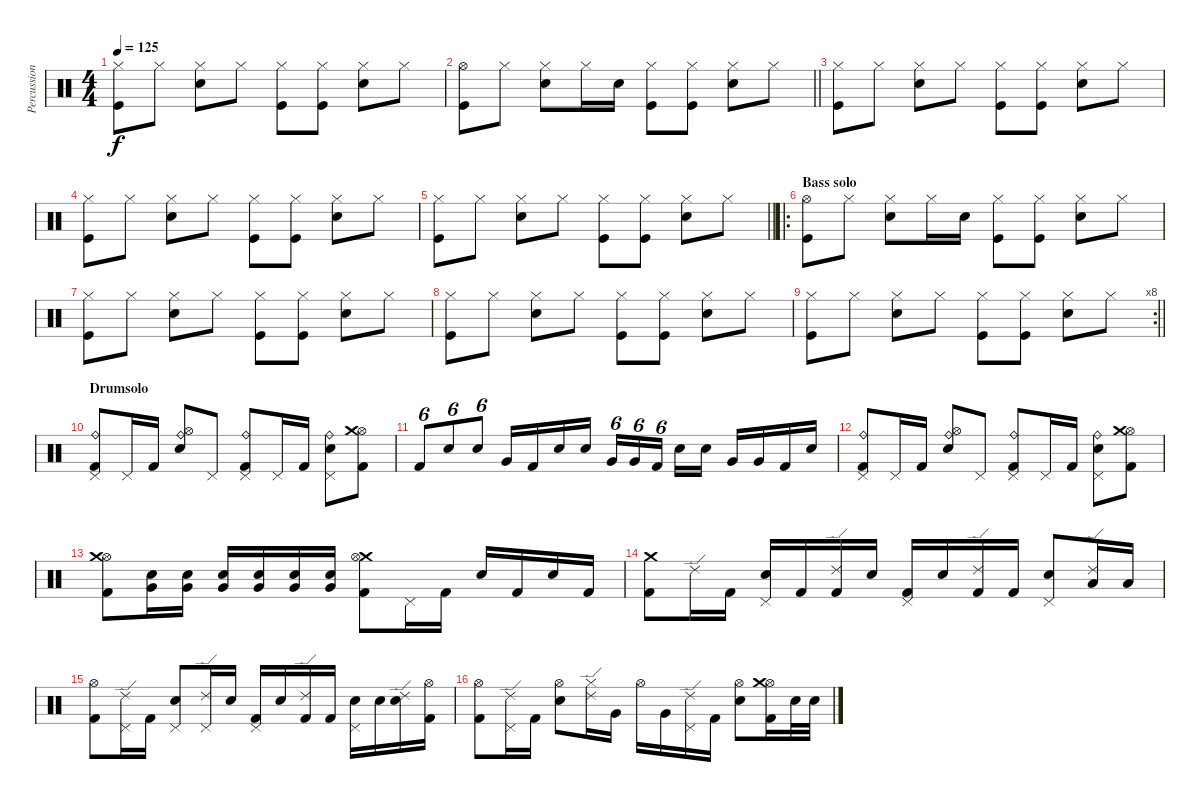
\track ("Percussion" "Percussion") {instrument percussion}
\staff {score}
\articulation defaults
\ts (4 4)
\tempo 125
\clef neutral
\ks c
("Hi-Hat (closed)" "Kick (hit)").8{dy f} "Hi-Hat (closed)".8 ("Electric Snare (hit)" "Hi-Hat (closed)").8 "Hi-Hat (closed)".8 ("Hi-Hat (closed)" "Kick (hit)").8 ("Hi-Hat (closed)" "Kick (hit)").8 ("Electric Snare (hit)" "Hi-Hat (closed)").8 "Hi-Hat (closed)".8 |
\barLineRight lightlight
("Hi-Hat (open)" "Kick (hit)").8 "Hi-Hat (closed)".8 ("Electric Snare (hit)" "Hi-Hat (closed)").8 "Hi-Hat (closed)".16 "Electric Snare (hit)".16 ("Hi-Hat (closed)" "Kick (hit)").8 ("Hi-Hat (closed)" "Kick (hit)").8 ("Electric Snare (hit)" "Hi-Hat (closed)").8 "Hi-Hat (closed)".8 |
("Hi-Hat (closed)" "Kick (hit)").8 "Hi-Hat (closed)".8 ("Electric Snare (hit)" "Hi-Hat (closed)").8 "Hi-Hat (closed)".8 ("Hi-Hat (closed)" "Kick (hit)").8 ("Hi-Hat (closed)" "Kick (hit)").8 ("Electric Snare (hit)" "Hi-Hat (closed)").8 "Hi-Hat (closed)".8 |
("Hi-Hat (closed)" "Kick (hit)").8 "Hi-Hat (closed)".8 ("Electric Snare (hit)" "Hi-Hat (closed)").8 "Hi-Hat (closed)".8 ("Hi-Hat (closed)" "Kick (hit)").8 ("Hi-Hat (closed)" "Kick (hit)").8 ("Electric Snare (hit)" "Hi-Hat (closed)").8 "Hi-Hat (closed)".8 |
\barLineRight lightlight
("Hi-Hat (closed)" "Kick (hit)").8 "Hi-Hat (closed)".8 ("Electric Snare (hit)" "Hi-Hat (closed)").8 "Hi-Hat (closed)".8 ("Hi-Hat (closed)" "Kick (hit)").8 ("Hi-Hat (closed)" "Kick (hit)").8 ("Electric Snare (hit)" "Hi-Hat (closed)").8 "Hi-Hat (closed)".8 |
\ro
\section ("" "Bass solo")
("Hi-Hat (open)" "Kick (hit)").8 "Hi-Hat (closed)".8 ("Electric Snare (hit)" "Hi-Hat (closed)").8 "Hi-Hat (closed)".16 "Electric Snare (hit)".16 ("Hi-Hat (closed)" "Kick (hit)").8 ("Hi-Hat (closed)" "Kick (hit)").8 ("Electric Snare (hit)" "Hi-Hat (closed)").8 "Hi-Hat (closed)".8 |
("Hi-Hat (closed)" "Kick (hit)").8 "Hi-Hat (closed)".8 ("Electric Snare (hit)" "Hi-Hat (closed)").8 "Hi-Hat (closed)".8 ("Hi-Hat (closed)" "Kick (hit)").8 ("Hi-Hat (closed)" "Kick (hit)").8 ("Electric Snare (hit)" "Hi-Hat (closed)").8 "Hi-Hat (closed)".8 |
("Hi-Hat (closed)" "Kick (hit)").8 "Hi-Hat (closed)".8 ("Electric Snare (hit)" "Hi-Hat (closed)").8 "Hi-Hat (closed)".8 ("Hi-Hat (closed)" "Kick (hit)").8 ("Hi-Hat (closed)" "Kick (hit)").8 ("Electric Snare (hit)" "Hi-Hat (closed)").8 "Hi-Hat (closed)".8 |
\rc 8
\barLineRight lightlight
("Hi-Hat (closed)" "Kick (hit)").8 "Hi-Hat (closed)".8 ("Electric Snare (hit)" "Hi-Hat (closed)").8 "Hi-Hat (closed)".8 ("Hi-Hat (closed)" "Kick (hit)").8 ("Hi-Hat (closed)" "Kick (hit)").8 ("Electric Snare (hit)" "Hi-Hat (closed)").8 "Hi-Hat (closed)".8 |
\section ("" "Drumsolo")
("Pedal Hi-Hat (hit)" "Kick (hit) 2" "Ride (bell)").8 "Pedal Hi-Hat (hit)".16 "Kick (hit) 2".16 ("Hi-Hat (open)" "Electric Snare (hit)" "Ride (bell)").8 "Pedal Hi-Hat (hit)".8 ("Pedal Hi-Hat (hit)" "Kick (hit) 2" "Ride (bell)").8 "Pedal Hi-Hat (hit)".16 "Kick (hit) 2".16 ("Pedal Hi-Hat (hit)" "Electric Snare (hit)" "Ride (bell)").8 ("Hi-Hat (open)" "Crash medium (hit)" "Kick (hit) 2").8 |
"Kick (hit) 2".8{tu (6 4)} "Electric Snare (hit)".8{tu (6 4)} "Electric Snare (hit)".8{tu (6 4)} "Very Low Tom (hit)".16 "Kick (hit) 2".16 "Electric Snare (hit)".16 "Electric Snare (hit)".16 "Very Low Tom (hit)".16{tu (6 4)} "Very Low Tom (hit)".16{tu (6 4)} "Kick (hit) 2".16{tu (6 4) beam splitsecondary} "Electric Snare (hit)".16 "Electric Snare (hit)".16 "Very Low Tom (hit)".16 "Very Low Tom (hit)".16 "Kick (hit) 2".16 "Electric Snare (hit)".16 |
("Pedal Hi-Hat (hit)" "Kick (hit) 2" "Ride (bell)").8 "Pedal Hi-Hat (hit)".16 "Kick (hit) 2".16 ("Hi-Hat (open)" "Electric Snare (hit)" "Ride (bell)").8 "Pedal Hi-Hat (hit)".8 ("Pedal Hi-Hat (hit)" "Kick (hit) 2" "Ride (bell)").8 "Pedal Hi-Hat (hit)".16 "Kick (hit) 2".16 ("Pedal Hi-Hat (hit)" "Electric Snare (hit)" "Ride (bell)").8 ("Hi-Hat (open)" "Crash medium (hit)" "Kick (hit) 2").8 |
("Hi-Hat (open)" "Crash medium (hit)" "Kick (hit) 2").8 ("Very Low Tom (hit)" "Electric Snare (hit)").16 ("Very Low Tom (hit)" "Electric Snare (hit)").16 ("Very Low Tom (hit)" "Electric Snare (hit)").16 ("Very Low Tom (hit)" "Electric Snare (hit)").16 ("Very Low Tom (hit)" "Electric Snare (hit)").16 ("Very Low Tom (hit)" "Electric Snare (hit)").16 ("Crash medium (hit)" "Hi-Hat (open)" "Kick (hit) 2").8 "Pedal Hi-Hat (hit)".16 "Kick (hit) 2".16 "Electric Snare (hit)".16 "Kick (hit) 2".16 "Electric Snare (hit)".16 "Kick (hit) 2".16 |
("Crash medium (hit)" "Kick (hit) 2").8 "Ride (edge) 2".16 "Kick (hit) 2".16 ("Pedal Hi-Hat (hit)" "Electric Snare (hit)").16 "Kick (hit) 2".16 ("Ride (edge) 2" "Kick (hit) 2").16 "Electric Snare (hit)".16 ("Pedal Hi-Hat (hit)" "Kick (hit) 2").16 "Electric Snare (hit)".16 ("Ride (edge) 2" "Kick (hit) 2").16 "Kick (hit) 2".16 ("Pedal Hi-Hat (hit)" "Electric Snare (hit)").8 ("Ride (edge) 2" "Low Tom (hit)").16 "Low Tom (hit)".16 |
("Hi-Hat (open)" "Kick (hit) 2").8 ("Ride (edge) 2" "Pedal Hi-Hat (hit)").16 "Kick (hit) 2".16 ("Pedal Hi-Hat (hit)" "Electric Snare (hit)").8 ("Ride (edge) 2" "Pedal Hi-Hat (hit)").16 "Electric Snare (hit)".16 ("Pedal Hi-Hat (hit)" "Kick (hit) 2").16 "Electric Snare (hit)".16 ("Ride (edge) 2" "Kick (hit) 2").16 "Kick (hit) 2".16 ("Pedal Hi-Hat (hit)" "Electric Snare (hit)").16 "Electric Snare (hit)".16 ("Ride (edge) 2" "Electric Snare (hit)").16 ("Hi-Hat (open)" "Kick (hit) 2").16 |
("Hi-Hat (open)" "Kick (hit) 2").8 ("Ride (edge) 2" "Pedal Hi-Hat (hit)").16 "Kick (hit) 2".16 ("Hi-Hat (open)" "Electric Snare (hit)").8 ("Ride (edge) 2" "Hi-Hat (closed)").16 "Very Low Tom (hit)".16 "Hi-Hat (open)".16 "Very Low Tom (hit)".16 ("Ride (edge) 2" "Pedal Hi-Hat (hit)").16 "Kick (hit) 2".16 ("Hi-Hat (open)" "Electric Snare (hit)").8 ("Hi-Hat (open)" "Crash medium (hit)" "Kick (hit) 2").16 "Electric Snare (hit)".32 "Electric Snare (hit)".32
